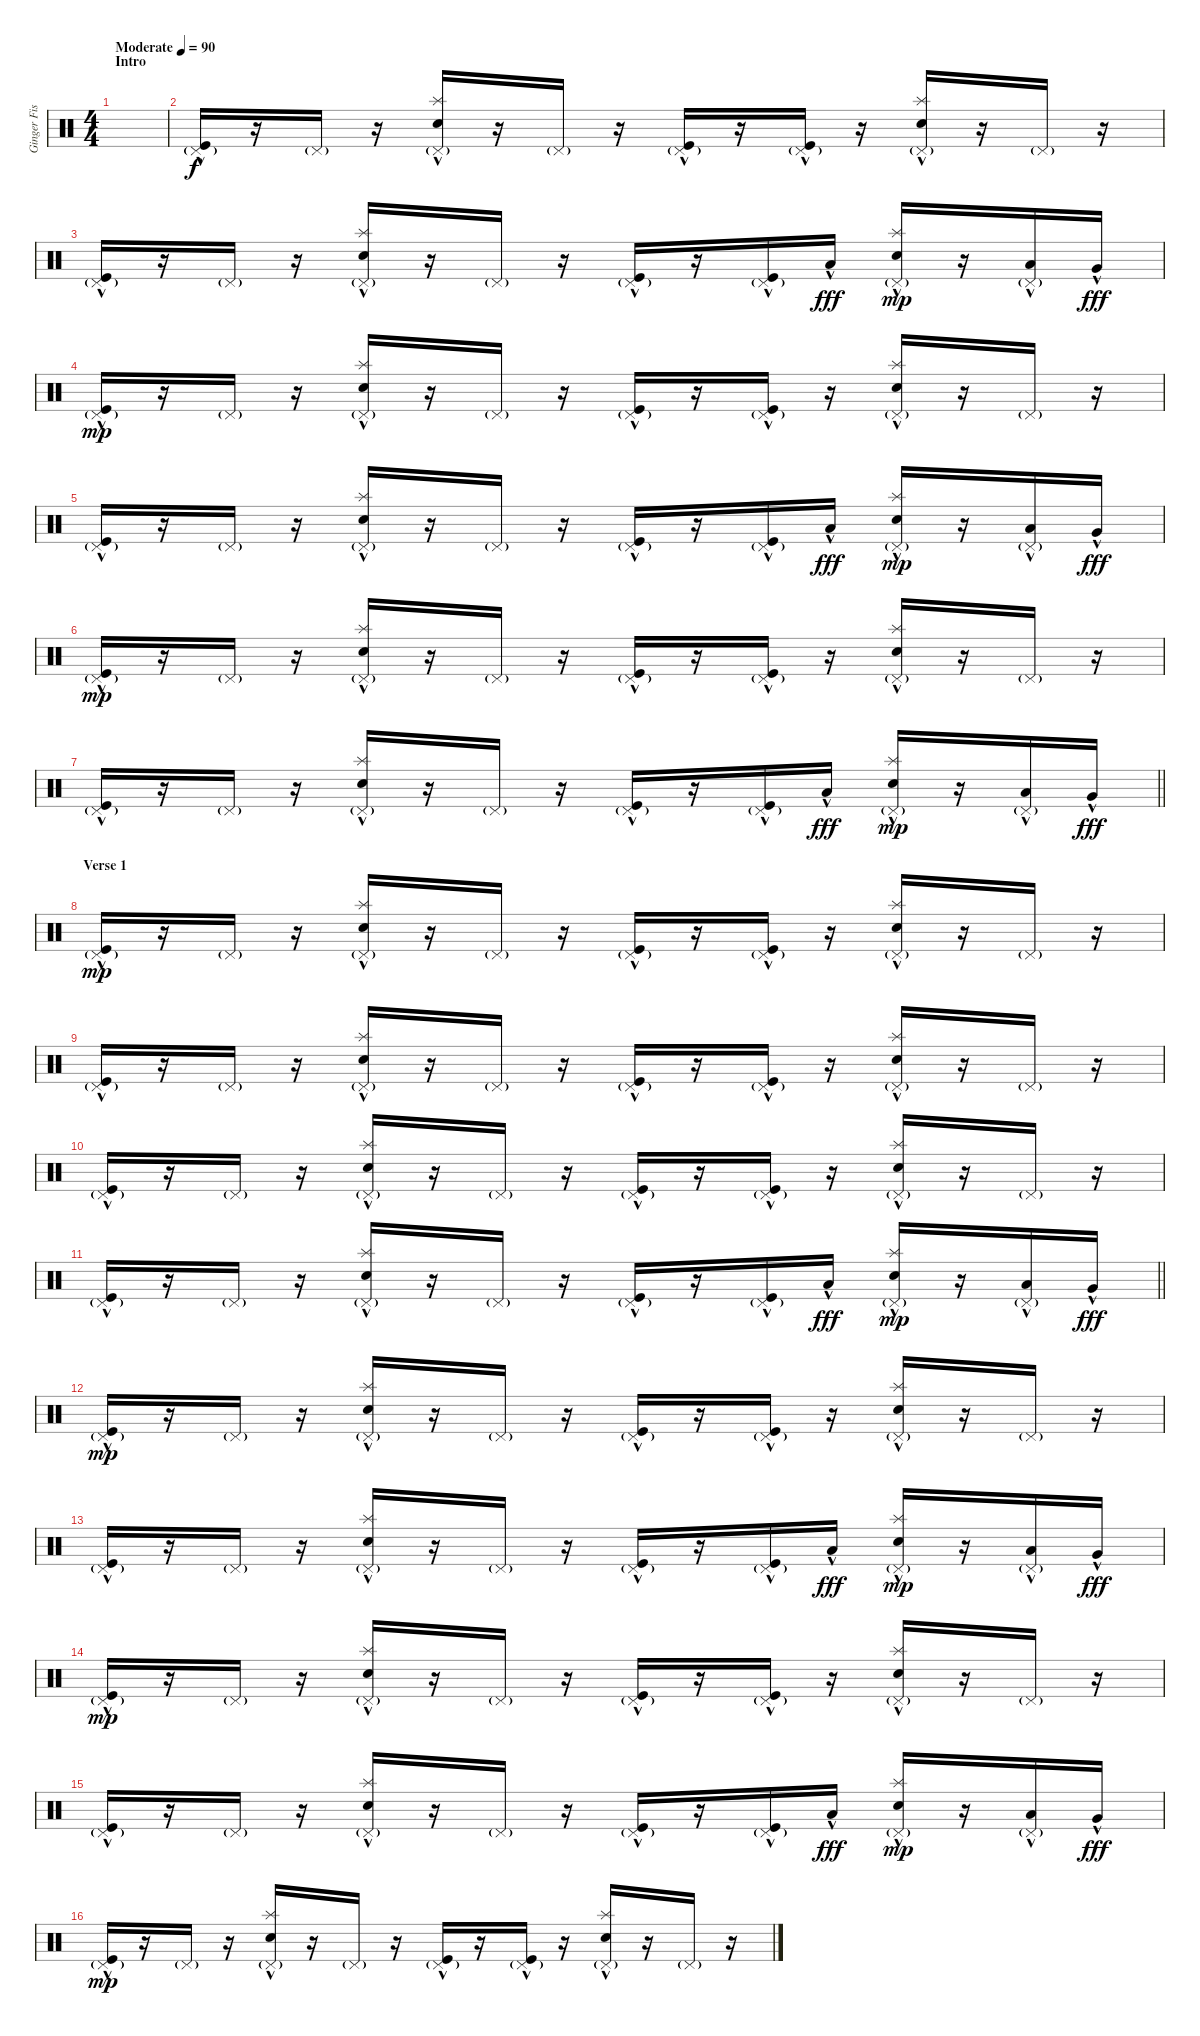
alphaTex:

\track ("Ginger Fish" "Ginger Fis") {instrument percussion}
\staff {score}
\articulation defaults
\ts (4 4)
\section ("" "Intro")
\tempo (90 "Moderate")
\clef neutral
\ks c
|
("Kick (hit)"{hac} "Pedal Hi-Hat (hit)"{g}).16 r.16 "Pedal Hi-Hat (hit)"{g}.16 r.16 ("Splash (hit)" "Electric Snare (hit)"{hac} "Pedal Hi-Hat (hit)"{g}).16 r.16 "Pedal Hi-Hat (hit)"{g}.16 r.16 ("Kick (hit)"{hac} "Pedal Hi-Hat (hit)"{g}).16 r.16 ("Kick (hit)"{hac} "Pedal Hi-Hat (hit)"{g}).16 r.16 ("Splash (hit)" "Electric Snare (hit)"{hac} "Pedal Hi-Hat (hit)"{g}).16 r.16 "Pedal Hi-Hat (hit)"{g}.16 r.16 |
("Kick (hit)"{hac} "Pedal Hi-Hat (hit)"{g}).16 r.16 "Pedal Hi-Hat (hit)"{g}.16 r.16 ("Splash (hit)" "Electric Snare (hit)"{hac} "Pedal Hi-Hat (hit)"{g}).16 r.16 "Pedal Hi-Hat (hit)"{g}.16 r.16 ("Kick (hit)"{hac} "Pedal Hi-Hat (hit)"{g}).16 r.16 ("Kick (hit)"{hac} "Pedal Hi-Hat (hit)"{g}).16 "Low Tom (hit)"{hac}.16{dy fff} ("Splash (hit)" "Electric Snare (hit)"{hac} "Pedal Hi-Hat (hit)"{g}).16{dy mp} r.16 ("Low Floor Tom (hit)"{hac} "Pedal Hi-Hat (hit)"{g}).16 "Very Low Tom (hit)"{hac}.16{dy fff} |
("Kick (hit)"{hac} "Pedal Hi-Hat (hit)"{g}).16{dy mp} r.16 "Pedal Hi-Hat (hit)"{g}.16 r.16 ("Splash (hit)" "Electric Snare (hit)"{hac} "Pedal Hi-Hat (hit)"{g}).16 r.16 "Pedal Hi-Hat (hit)"{g}.16 r.16 ("Kick (hit)"{hac} "Pedal Hi-Hat (hit)"{g}).16 r.16 ("Kick (hit)"{hac} "Pedal Hi-Hat (hit)"{g}).16 r.16 ("Splash (hit)" "Electric Snare (hit)"{hac} "Pedal Hi-Hat (hit)"{g}).16 r.16 "Pedal Hi-Hat (hit)"{g}.16 r.16 |
("Kick (hit)"{hac} "Pedal Hi-Hat (hit)"{g}).16 r.16 "Pedal Hi-Hat (hit)"{g}.16 r.16 ("Splash (hit)" "Electric Snare (hit)"{hac} "Pedal Hi-Hat (hit)"{g}).16 r.16 "Pedal Hi-Hat (hit)"{g}.16 r.16 ("Kick (hit)"{hac} "Pedal Hi-Hat (hit)"{g}).16 r.16 ("Kick (hit)"{hac} "Pedal Hi-Hat (hit)"{g}).16 "Low Tom (hit)"{hac}.16{dy fff} ("Splash (hit)" "Electric Snare (hit)"{hac} "Pedal Hi-Hat (hit)"{g}).16{dy mp} r.16 ("Low Floor Tom (hit)"{hac} "Pedal Hi-Hat (hit)"{g}).16 "Very Low Tom (hit)"{hac}.16{dy fff} |
("Kick (hit)"{hac} "Pedal Hi-Hat (hit)"{g}).16{dy mp} r.16 "Pedal Hi-Hat (hit)"{g}.16 r.16 ("Splash (hit)" "Electric Snare (hit)"{hac} "Pedal Hi-Hat (hit)"{g}).16 r.16 "Pedal Hi-Hat (hit)"{g}.16 r.16 ("Kick (hit)"{hac} "Pedal Hi-Hat (hit)"{g}).16 r.16 ("Kick (hit)"{hac} "Pedal Hi-Hat (hit)"{g}).16 r.16 ("Splash (hit)" "Electric Snare (hit)"{hac} "Pedal Hi-Hat (hit)"{g}).16 r.16 "Pedal Hi-Hat (hit)"{g}.16 r.16 |
\barLineRight lightlight
("Kick (hit)"{hac} "Pedal Hi-Hat (hit)"{g}).16 r.16 "Pedal Hi-Hat (hit)"{g}.16 r.16 ("Splash (hit)" "Electric Snare (hit)"{hac} "Pedal Hi-Hat (hit)"{g}).16 r.16 "Pedal Hi-Hat (hit)"{g}.16 r.16 ("Kick (hit)"{hac} "Pedal Hi-Hat (hit)"{g}).16 r.16 ("Kick (hit)"{hac} "Pedal Hi-Hat (hit)"{g}).16 "Low Tom (hit)"{hac}.16{dy fff} ("Splash (hit)" "Electric Snare (hit)"{hac} "Pedal Hi-Hat (hit)"{g}).16{dy mp} r.16 ("Low Floor Tom (hit)"{hac} "Pedal Hi-Hat (hit)"{g}).16 "Very Low Tom (hit)"{hac}.16{dy fff} |
\section ("" "Verse 1")
("Kick (hit)"{hac} "Pedal Hi-Hat (hit)"{g}).16{dy mp} r.16 "Pedal Hi-Hat (hit)"{g}.16 r.16 ("Splash (hit)" "Electric Snare (hit)"{hac} "Pedal Hi-Hat (hit)"{g}).16 r.16 "Pedal Hi-Hat (hit)"{g}.16 r.16 ("Kick (hit)"{hac} "Pedal Hi-Hat (hit)"{g}).16 r.16 ("Kick (hit)"{hac} "Pedal Hi-Hat (hit)"{g}).16 r.16 ("Splash (hit)" "Electric Snare (hit)"{hac} "Pedal Hi-Hat (hit)"{g}).16 r.16 "Pedal Hi-Hat (hit)"{g}.16 r.16 |
("Kick (hit)"{hac} "Pedal Hi-Hat (hit)"{g}).16 r.16 "Pedal Hi-Hat (hit)"{g}.16 r.16 ("Splash (hit)" "Electric Snare (hit)"{hac} "Pedal Hi-Hat (hit)"{g}).16 r.16 "Pedal Hi-Hat (hit)"{g}.16 r.16 ("Kick (hit)"{hac} "Pedal Hi-Hat (hit)"{g}).16 r.16 ("Kick (hit)"{hac} "Pedal Hi-Hat (hit)"{g}).16 r.16 ("Splash (hit)" "Electric Snare (hit)"{hac} "Pedal Hi-Hat (hit)"{g}).16 r.16 "Pedal Hi-Hat (hit)"{g}.16 r.16 |
("Kick (hit)"{hac} "Pedal Hi-Hat (hit)"{g}).16 r.16 "Pedal Hi-Hat (hit)"{g}.16 r.16 ("Splash (hit)" "Electric Snare (hit)"{hac} "Pedal Hi-Hat (hit)"{g}).16 r.16 "Pedal Hi-Hat (hit)"{g}.16 r.16 ("Kick (hit)"{hac} "Pedal Hi-Hat (hit)"{g}).16 r.16 ("Kick (hit)"{hac} "Pedal Hi-Hat (hit)"{g}).16 r.16 ("Splash (hit)" "Electric Snare (hit)"{hac} "Pedal Hi-Hat (hit)"{g}).16 r.16 "Pedal Hi-Hat (hit)"{g}.16 r.16 |
\barLineRight lightlight
("Kick (hit)"{hac} "Pedal Hi-Hat (hit)"{g}).16 r.16 "Pedal Hi-Hat (hit)"{g}.16 r.16 ("Splash (hit)" "Electric Snare (hit)"{hac} "Pedal Hi-Hat (hit)"{g}).16 r.16 "Pedal Hi-Hat (hit)"{g}.16 r.16 ("Kick (hit)"{hac} "Pedal Hi-Hat (hit)"{g}).16 r.16 ("Kick (hit)"{hac} "Pedal Hi-Hat (hit)"{g}).16 "Low Tom (hit)"{hac}.16{dy fff} ("Splash (hit)" "Electric Snare (hit)"{hac} "Pedal Hi-Hat (hit)"{g}).16{dy mp} r.16 ("Low Floor Tom (hit)"{hac} "Pedal Hi-Hat (hit)"{g}).16 "Very Low Tom (hit)"{hac}.16{dy fff} |
\section ("" "")
("Kick (hit)"{hac} "Pedal Hi-Hat (hit)"{g}).16{dy mp} r.16 "Pedal Hi-Hat (hit)"{g}.16 r.16 ("Splash (hit)" "Electric Snare (hit)"{hac} "Pedal Hi-Hat (hit)"{g}).16 r.16 "Pedal Hi-Hat (hit)"{g}.16 r.16 ("Kick (hit)"{hac} "Pedal Hi-Hat (hit)"{g}).16 r.16 ("Kick (hit)"{hac} "Pedal Hi-Hat (hit)"{g}).16 r.16 ("Splash (hit)" "Electric Snare (hit)"{hac} "Pedal Hi-Hat (hit)"{g}).16 r.16 "Pedal Hi-Hat (hit)"{g}.16 r.16 |
("Kick (hit)"{hac} "Pedal Hi-Hat (hit)"{g}).16 r.16 "Pedal Hi-Hat (hit)"{g}.16 r.16 ("Splash (hit)" "Electric Snare (hit)"{hac} "Pedal Hi-Hat (hit)"{g}).16 r.16 "Pedal Hi-Hat (hit)"{g}.16 r.16 ("Kick (hit)"{hac} "Pedal Hi-Hat (hit)"{g}).16 r.16 ("Kick (hit)"{hac} "Pedal Hi-Hat (hit)"{g}).16 "Low Tom (hit)"{hac}.16{dy fff} ("Splash (hit)" "Electric Snare (hit)"{hac} "Pedal Hi-Hat (hit)"{g}).16{dy mp} r.16 ("Low Floor Tom (hit)"{hac} "Pedal Hi-Hat (hit)"{g}).16 "Very Low Tom (hit)"{hac}.16{dy fff} |
("Kick (hit)"{hac} "Pedal Hi-Hat (hit)"{g}).16{dy mp} r.16 "Pedal Hi-Hat (hit)"{g}.16 r.16 ("Splash (hit)" "Electric Snare (hit)"{hac} "Pedal Hi-Hat (hit)"{g}).16 r.16 "Pedal Hi-Hat (hit)"{g}.16 r.16 ("Kick (hit)"{hac} "Pedal Hi-Hat (hit)"{g}).16 r.16 ("Kick (hit)"{hac} "Pedal Hi-Hat (hit)"{g}).16 r.16 ("Splash (hit)" "Electric Snare (hit)"{hac} "Pedal Hi-Hat (hit)"{g}).16 r.16 "Pedal Hi-Hat (hit)"{g}.16 r.16 |
("Kick (hit)"{hac} "Pedal Hi-Hat (hit)"{g}).16 r.16 "Pedal Hi-Hat (hit)"{g}.16 r.16 ("Splash (hit)" "Electric Snare (hit)"{hac} "Pedal Hi-Hat (hit)"{g}).16 r.16 "Pedal Hi-Hat (hit)"{g}.16 r.16 ("Kick (hit)"{hac} "Pedal Hi-Hat (hit)"{g}).16 r.16 ("Kick (hit)"{hac} "Pedal Hi-Hat (hit)"{g}).16 "Low Tom (hit)"{hac}.16{dy fff} ("Splash (hit)" "Electric Snare (hit)"{hac} "Pedal Hi-Hat (hit)"{g}).16{dy mp} r.16 ("Low Floor Tom (hit)"{hac} "Pedal Hi-Hat (hit)"{g}).16 "Very Low Tom (hit)"{hac}.16{dy fff} |
("Kick (hit)"{hac} "Pedal Hi-Hat (hit)"{g}).16{dy mp} r.16 "Pedal Hi-Hat (hit)"{g}.16 r.16 ("Splash (hit)" "Electric Snare (hit)"{hac} "Pedal Hi-Hat (hit)"{g}).16 r.16 "Pedal Hi-Hat (hit)"{g}.16 r.16 ("Kick (hit)"{hac} "Pedal Hi-Hat (hit)"{g}).16 r.16 ("Kick (hit)"{hac} "Pedal Hi-Hat (hit)"{g}).16 r.16 ("Splash (hit)" "Electric Snare (hit)"{hac} "Pedal Hi-Hat (hit)"{g}).16 r.16 "Pedal Hi-Hat (hit)"{g}.16 r.16
